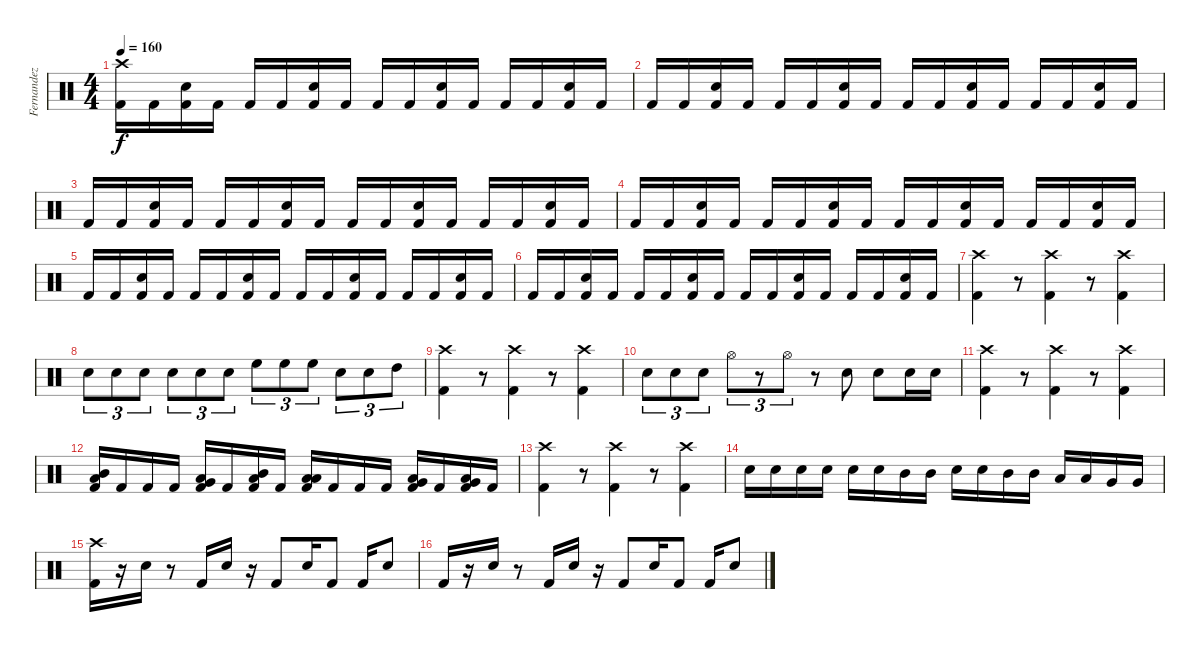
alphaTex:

\track ("Fernandez" "Fernandez") {instrument percussion}
\staff {score}
\articulation defaults
\ts (4 4)
\tempo 160
\clef neutral
\ks c
("Crash high (hit)" "Kick (hit) 2").16{dy f} "Kick (hit) 2".16 ("Snare (hit) 2" "Kick (hit) 2").16 "Kick (hit) 2".16 "Kick (hit) 2".16 "Kick (hit) 2".16 ("Snare (hit) 2" "Kick (hit) 2").16 "Kick (hit) 2".16 "Kick (hit) 2".16 "Kick (hit) 2".16 ("Snare (hit) 2" "Kick (hit) 2").16 "Kick (hit) 2".16 "Kick (hit) 2".16 "Kick (hit) 2".16 ("Snare (hit) 2" "Kick (hit) 2").16 "Kick (hit) 2".16 |
"Kick (hit) 2".16 "Kick (hit) 2".16 ("Snare (hit) 2" "Kick (hit) 2").16 "Kick (hit) 2".16 "Kick (hit) 2".16 "Kick (hit) 2".16 ("Snare (hit) 2" "Kick (hit) 2").16 "Kick (hit) 2".16 "Kick (hit) 2".16 "Kick (hit) 2".16 ("Snare (hit) 2" "Kick (hit) 2").16 "Kick (hit) 2".16 "Kick (hit) 2".16 "Kick (hit) 2".16 ("Snare (hit) 2" "Kick (hit) 2").16 "Kick (hit) 2".16 |
"Kick (hit) 2".16 "Kick (hit) 2".16 ("Snare (hit) 2" "Kick (hit) 2").16 "Kick (hit) 2".16 "Kick (hit) 2".16 "Kick (hit) 2".16 ("Snare (hit) 2" "Kick (hit) 2").16 "Kick (hit) 2".16 "Kick (hit) 2".16 "Kick (hit) 2".16 ("Snare (hit) 2" "Kick (hit) 2").16 "Kick (hit) 2".16 "Kick (hit) 2".16 "Kick (hit) 2".16 ("Snare (hit) 2" "Kick (hit) 2").16 "Kick (hit) 2".16 |
"Kick (hit) 2".16 "Kick (hit) 2".16 ("Snare (hit) 2" "Kick (hit) 2").16 "Kick (hit) 2".16 "Kick (hit) 2".16 "Kick (hit) 2".16 ("Snare (hit) 2" "Kick (hit) 2").16 "Kick (hit) 2".16 "Kick (hit) 2".16 "Kick (hit) 2".16 ("Snare (hit) 2" "Kick (hit) 2").16 "Kick (hit) 2".16 "Kick (hit) 2".16 "Kick (hit) 2".16 ("Snare (hit) 2" "Kick (hit) 2").16 "Kick (hit) 2".16 |
"Kick (hit) 2".16 "Kick (hit) 2".16 ("Snare (hit) 2" "Kick (hit) 2").16 "Kick (hit) 2".16 "Kick (hit) 2".16 "Kick (hit) 2".16 ("Snare (hit) 2" "Kick (hit) 2").16 "Kick (hit) 2".16 "Kick (hit) 2".16 "Kick (hit) 2".16 ("Snare (hit) 2" "Kick (hit) 2").16 "Kick (hit) 2".16 "Kick (hit) 2".16 "Kick (hit) 2".16 ("Snare (hit) 2" "Kick (hit) 2").16 "Kick (hit) 2".16 |
"Kick (hit) 2".16 "Kick (hit) 2".16 ("Snare (hit) 2" "Kick (hit) 2").16 "Kick (hit) 2".16 "Kick (hit) 2".16 "Kick (hit) 2".16 ("Snare (hit) 2" "Kick (hit) 2").16 "Kick (hit) 2".16 "Kick (hit) 2".16 "Kick (hit) 2".16 ("Snare (hit) 2" "Kick (hit) 2").16 "Kick (hit) 2".16 "Kick (hit) 2".16 "Kick (hit) 2".16 ("Snare (hit) 2" "Kick (hit) 2").16 "Kick (hit) 2".16 |
("Kick (hit) 2" "Crash high (hit)").4 r.8 ("Kick (hit) 2" "Crash high (hit)").4 r.8 ("Kick (hit) 2" "Crash high (hit)").4 |
"Snare (hit) 2".8{tu (3 2)} "Snare (hit) 2".8{tu (3 2)} "Snare (hit) 2".8{tu (3 2)} "Snare (hit) 2".8{tu (3 2)} "Snare (hit) 2".8{tu (3 2)} "Snare (hit) 2".8{tu (3 2)} "High Floor Tom (hit)".8{tu (3 2)} "High Floor Tom (hit)".8{tu (3 2)} "High Floor Tom (hit)".8{tu (3 2)} "Snare (hit) 2".8{tu (3 2)} "Snare (hit) 2".8{tu (3 2)} "High Tom (hit)".8{tu (3 2)} |
("Kick (hit) 2" "Crash high (hit)").4 r.8 ("Kick (hit) 2" "Crash high (hit)").4 r.8 ("Crash high (hit)" "Kick (hit) 2").4 |
"Snare (hit) 2".8{tu (3 2)} "Snare (hit) 2".8{tu (3 2)} "Snare (hit) 2".8{tu (3 2)} "Hi-Hat (open)".8{tu (3 2)} r.8{tu (3 2)} "Hi-Hat (open)".8{tu (3 2)} r.8 "Snare (hit) 2".8 "Snare (hit) 2".8 "Snare (hit) 2".16 "Snare (hit) 2".16 |
("Kick (hit) 2" "Crash high (hit)").4 r.8 ("Kick (hit) 2" "Crash high (hit)").4 r.8 ("Kick (hit) 2" "Crash high (hit)").4 |
("Mid Tom (hit)" "Low Tom (hit)" "Kick (hit) 2").16 "Kick (hit) 2".16 "Kick (hit) 2".16 "Kick (hit) 2".16 ("Very Low Tom (hit)" "Low Tom (hit)" "Kick (hit) 2").16 "Kick (hit) 2".16 ("Low Tom (hit)" "Mid Tom (hit)" "Kick (hit) 2").16 "Kick (hit) 2".16 ("Low Tom (hit)" "Low Floor Tom (hit)" "Kick (hit) 2").16 "Kick (hit) 2".16 "Kick (hit) 2".16 "Kick (hit) 2".16 ("Very Low Tom (hit)" "Low Floor Tom (hit)" "Kick (hit) 2").16 "Kick (hit) 2".16 ("Very Low Tom (hit)" "Low Tom (hit)" "Kick (hit) 2").16 "Kick (hit) 2".16 |
("Kick (hit) 2" "Crash high (hit)").4 r.8 ("Kick (hit) 2" "Crash high (hit)").4 r.8 ("Kick (hit) 2" "Crash high (hit)").4 |
"Snare (hit) 2".16 "Snare (hit) 2".16 "Snare (hit) 2".16 "Snare (hit) 2".16 "Snare (hit) 2".16 "Snare (hit) 2".16 "Mid Tom (hit)".16 "Mid Tom (hit)".16 "Snare (hit) 2".16 "Snare (hit) 2".16 "Mid Tom (hit)".16 "Mid Tom (hit)".16 "Low Tom (hit)".16 "Low Tom (hit)".16 "Very Low Tom (hit)".16 "Very Low Tom (hit)".16 |
("Kick (hit) 2" "Crash high (hit)").16 r.16 "Snare (hit) 2".16 r.8 "Kick (hit) 2".16 "Snare (hit) 2".16 r.16 "Kick (hit) 2".8 "Snare (hit) 2".16 "Kick (hit) 2".8 "Kick (hit) 2".16 "Snare (hit) 2".8 |
"Kick (hit) 2".16 r.16 "Snare (hit) 2".16 r.8 "Kick (hit) 2".16 "Snare (hit) 2".16 r.16 "Kick (hit) 2".8 "Snare (hit) 2".16 "Kick (hit) 2".8 "Kick (hit) 2".16 "Snare (hit) 2".8
